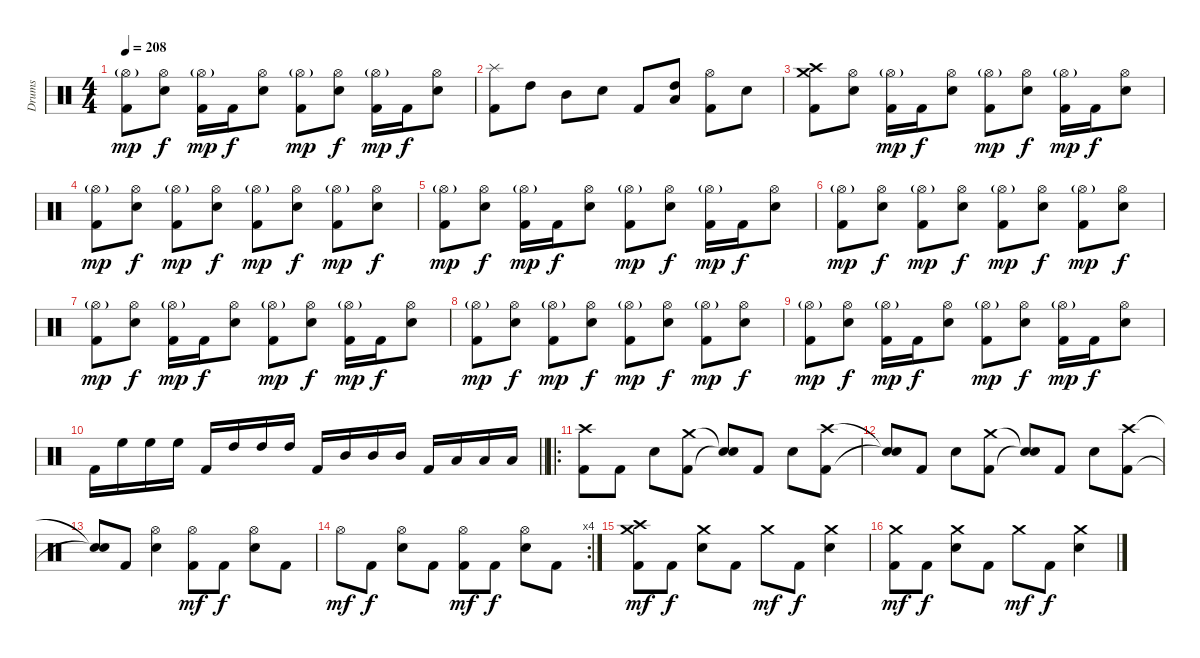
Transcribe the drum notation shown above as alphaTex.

\track ("Drums" "Drums") {instrument percussion}
\staff {score}
\articulation defaults
\ts (4 4)
\tempo 208
\clef neutral
\ks c
("Hi-Hat (open)"{g} "Kick (hit) 2").8{dy mp} ("Hi-Hat (open)" "Electric Snare (hit)").8{dy f} ("Hi-Hat (open)"{g} "Kick (hit) 2").16{dy mp} "Kick (hit) 2".16{dy f} ("Hi-Hat (open)" "Electric Snare (hit)").8 ("Hi-Hat (open)"{g} "Kick (hit) 2").8{dy mp} ("Hi-Hat (open)" "Electric Snare (hit)").8{dy f} ("Hi-Hat (open)"{g} "Kick (hit) 2").16{dy mp} "Kick (hit) 2".16{dy f} ("Hi-Hat (open)" "Electric Snare (hit)").8 |
("Splash (hit)" "Kick (hit) 2").8 "High Tom (hit)".8 "Mid Tom (hit)".8 "Electric Snare (hit)".8 "Kick (hit) 2".8 ("High Tom (hit)" "Low Tom (hit)").8 ("Hi-Hat (open)" "Kick (hit) 2").8 "Electric Snare (hit)".8 |
("Crash high (hit)" "Crash medium (hit)" "Kick (hit) 2").8 ("Hi-Hat (open)" "Electric Snare (hit)").8 ("Hi-Hat (open)"{g} "Kick (hit) 2").16{dy mp} "Kick (hit) 2".16{dy f} ("Hi-Hat (open)" "Electric Snare (hit)").8 ("Hi-Hat (open)"{g} "Kick (hit) 2").8{dy mp} ("Hi-Hat (open)" "Electric Snare (hit)").8{dy f} ("Hi-Hat (open)"{g} "Kick (hit) 2").16{dy mp} "Kick (hit) 2".16{dy f} ("Hi-Hat (open)" "Electric Snare (hit)").8 |
("Hi-Hat (open)"{g} "Kick (hit) 2").8{dy mp} ("Hi-Hat (open)" "Electric Snare (hit)").8{dy f} ("Hi-Hat (open)"{g} "Kick (hit) 2").8{dy mp} ("Hi-Hat (open)" "Electric Snare (hit)").8{dy f} ("Hi-Hat (open)"{g} "Kick (hit) 2").8{dy mp} ("Hi-Hat (open)" "Electric Snare (hit)").8{dy f} ("Hi-Hat (open)"{g} "Kick (hit) 2").8{dy mp} ("Hi-Hat (open)" "Electric Snare (hit)").8{dy f} |
("Hi-Hat (open)"{g} "Kick (hit) 2").8{dy mp} ("Hi-Hat (open)" "Electric Snare (hit)").8{dy f} ("Hi-Hat (open)"{g} "Kick (hit) 2").16{dy mp} "Kick (hit) 2".16{dy f} ("Hi-Hat (open)" "Electric Snare (hit)").8 ("Hi-Hat (open)"{g} "Kick (hit) 2").8{dy mp} ("Hi-Hat (open)" "Electric Snare (hit)").8{dy f} ("Hi-Hat (open)"{g} "Kick (hit) 2").16{dy mp} "Kick (hit) 2".16{dy f} ("Hi-Hat (open)" "Electric Snare (hit)").8 |
("Hi-Hat (open)"{g} "Kick (hit) 2").8{dy mp} ("Hi-Hat (open)" "Electric Snare (hit)").8{dy f} ("Hi-Hat (open)"{g} "Kick (hit) 2").8{dy mp} ("Hi-Hat (open)" "Electric Snare (hit)").8{dy f} ("Hi-Hat (open)"{g} "Kick (hit) 2").8{dy mp} ("Hi-Hat (open)" "Electric Snare (hit)").8{dy f} ("Hi-Hat (open)"{g} "Kick (hit) 2").8{dy mp} ("Hi-Hat (open)" "Electric Snare (hit)").8{dy f} |
("Hi-Hat (open)"{g} "Kick (hit) 2").8{dy mp} ("Hi-Hat (open)" "Electric Snare (hit)").8{dy f} ("Hi-Hat (open)"{g} "Kick (hit) 2").16{dy mp} "Kick (hit) 2".16{dy f} ("Hi-Hat (open)" "Electric Snare (hit)").8 ("Hi-Hat (open)"{g} "Kick (hit) 2").8{dy mp} ("Hi-Hat (open)" "Electric Snare (hit)").8{dy f} ("Hi-Hat (open)"{g} "Kick (hit) 2").16{dy mp} "Kick (hit) 2".16{dy f} ("Hi-Hat (open)" "Electric Snare (hit)").8 |
("Hi-Hat (open)"{g} "Kick (hit) 2").8{dy mp} ("Hi-Hat (open)" "Electric Snare (hit)").8{dy f} ("Hi-Hat (open)"{g} "Kick (hit) 2").8{dy mp} ("Hi-Hat (open)" "Electric Snare (hit)").8{dy f} ("Hi-Hat (open)"{g} "Kick (hit) 2").8{dy mp} ("Hi-Hat (open)" "Electric Snare (hit)").8{dy f} ("Hi-Hat (open)"{g} "Kick (hit) 2").8{dy mp} ("Hi-Hat (open)" "Electric Snare (hit)").8{dy f} |
("Hi-Hat (open)"{g} "Kick (hit) 2").8{dy mp} ("Hi-Hat (open)" "Electric Snare (hit)").8{dy f} ("Hi-Hat (open)"{g} "Kick (hit) 2").16{dy mp} "Kick (hit) 2".16{dy f} ("Hi-Hat (open)" "Electric Snare (hit)").8 ("Hi-Hat (open)"{g} "Kick (hit) 2").8{dy mp} ("Hi-Hat (open)" "Electric Snare (hit)").8{dy f} ("Hi-Hat (open)"{g} "Kick (hit) 2").16{dy mp} "Kick (hit) 2".16{dy f} ("Hi-Hat (open)" "Electric Snare (hit)").8 |
\barLineRight lightlight "Kick (hit) 2".16 "High Floor Tom (hit)".16 "High Floor Tom (hit)".16 "High Floor Tom (hit)".16 "Kick (hit) 2".16 "High Tom (hit)".16 "High Tom (hit)".16 "High Tom (hit)".16 "Kick (hit) 2".16 "Mid Tom (hit)".16 "Mid Tom (hit)".16 "Mid Tom (hit)".16 "Kick (hit) 2".16 "Low Tom (hit)".16 "Low Tom (hit)".16 "Low Tom (hit)".16
|
\ro
("Crash high (hit)" "Kick (hit) 2").8 "Kick (hit) 2".8 "Electric Snare (hit)".8 ("Crash medium (hit)" "Kick (hit) 2").8 ("Snare (hit)"{t} "Snare (hit)"{t}).8 "Kick (hit) 2".8 "Electric Snare (hit)".8 ("Crash high (hit)" "Kick (hit) 2").8 |
("Snare (hit)"{t} "Snare (hit)"{t}).8 "Kick (hit) 2".8 "Electric Snare (hit)".8 ("Crash medium (hit)" "Kick (hit) 2").8 ("Snare (hit)"{t} "Snare (hit)"{t}).8 "Kick (hit) 2".8 "Electric Snare (hit)".8 ("Crash high (hit)" "Kick (hit) 2").8 |
("Snare (hit)"{t} "Snare (hit)"{t}).8 "Kick (hit) 2".8 ("Hi-Hat (open)" "Electric Snare (hit)").4 ("Hi-Hat (open)" "Kick (hit) 2").8{dy mf} "Kick (hit) 2".8{dy f} ("Hi-Hat (open)" "Electric Snare (hit)").8 "Kick (hit) 2".8 |
\rc 4 "Hi-Hat (open)".8{dy mf} "Kick (hit) 2".8{dy f}
("Hi-Hat (open)" "Electric Snare (hit)").8 "Kick (hit) 2".8 ("Hi-Hat (open)" "Kick (hit) 2").8{dy mf} "Kick (hit) 2".8{dy f} ("Hi-Hat (open)" "Electric Snare (hit)").8 "Kick (hit) 2".8 |
("Crash high (hit)" "Crash medium (hit)" "Kick (hit) 2").8{dy mf} "Kick (hit) 2".8{dy f} ("Crash medium (hit)" "Electric Snare (hit)").8 "Kick (hit) 2".8 "Crash medium (hit)".8{dy mf} "Kick (hit) 2".8{dy f} ("Crash medium (hit)" "Electric Snare (hit)").4 |
("Crash medium (hit)" "Kick (hit) 2").8{dy mf} "Kick (hit) 2".8{dy f} ("Crash medium (hit)" "Electric Snare (hit)").8 "Kick (hit) 2".8 "Crash medium (hit)".8{dy mf} "Kick (hit) 2".8{dy f} ("Crash medium (hit)" "Electric Snare (hit)").4
